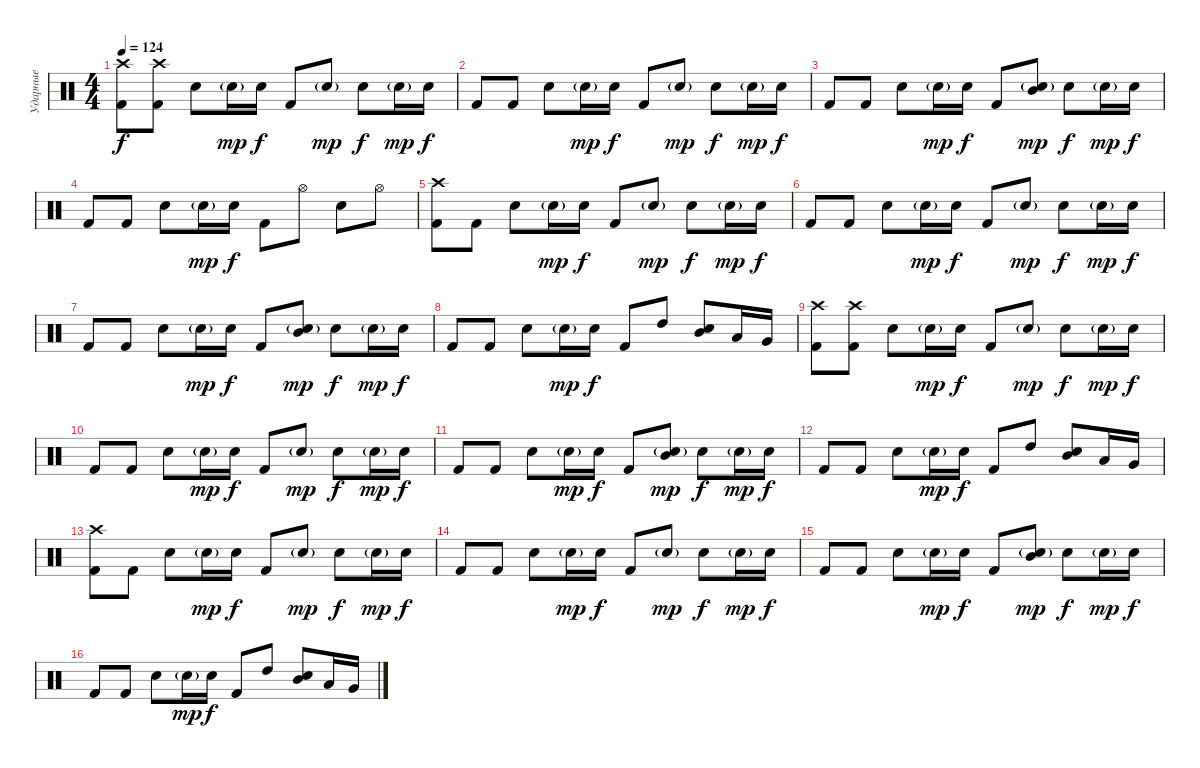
\track ("Ударные" "Ударные") {instrument percussion}
\staff {score}
\articulation defaults
\ts (4 4)
\tempo 124
\clef neutral
\ks c
("Crash high (hit)" "Kick (hit) 2").8{dy f} ("Crash high (hit)" "Kick (hit) 2").8 "Electric Snare (hit)".8 "Electric Snare (hit)"{g}.16{dy mp} "Electric Snare (hit)".16{dy f} "Kick (hit) 2".8 "Electric Snare (hit)"{g}.8{dy mp} "Electric Snare (hit)".8{dy f} "Electric Snare (hit)"{g}.16{dy mp} "Electric Snare (hit)".16{dy f} |
"Kick (hit) 2".8 "Kick (hit) 2".8 "Electric Snare (hit)".8 "Electric Snare (hit)"{g}.16{dy mp} "Electric Snare (hit)".16{dy f} "Kick (hit) 2".8 "Electric Snare (hit)"{g}.8{dy mp} "Electric Snare (hit)".8{dy f} "Electric Snare (hit)"{g}.16{dy mp} "Electric Snare (hit)".16{dy f} |
"Kick (hit) 2".8 "Kick (hit) 2".8 "Electric Snare (hit)".8 "Electric Snare (hit)"{g}.16{dy mp} "Electric Snare (hit)".16{dy f} "Kick (hit) 2".8 ("Mid Tom (hit)" "Electric Snare (hit)"{g}).8{dy mp} "Electric Snare (hit)".8{dy f} "Electric Snare (hit)"{g}.16{dy mp} "Electric Snare (hit)".16{dy f} |
"Kick (hit) 2".8 "Kick (hit) 2".8 "Electric Snare (hit)".8 "Electric Snare (hit)"{g}.16{dy mp} "Electric Snare (hit)".16{dy f} "Kick (hit) 2".8 "Hi-Hat (open)".8 "Electric Snare (hit)".8 "Hi-Hat (open)".8 |
("Crash high (hit)" "Kick (hit) 2").8 "Kick (hit) 2".8 "Electric Snare (hit)".8 "Electric Snare (hit)"{g}.16{dy mp} "Electric Snare (hit)".16{dy f} "Kick (hit) 2".8 "Electric Snare (hit)"{g}.8{dy mp} "Electric Snare (hit)".8{dy f} "Electric Snare (hit)"{g}.16{dy mp} "Electric Snare (hit)".16{dy f} |
"Kick (hit) 2".8 "Kick (hit) 2".8 "Electric Snare (hit)".8 "Electric Snare (hit)"{g}.16{dy mp} "Electric Snare (hit)".16{dy f} "Kick (hit) 2".8 "Electric Snare (hit)"{g}.8{dy mp} "Electric Snare (hit)".8{dy f} "Electric Snare (hit)"{g}.16{dy mp} "Electric Snare (hit)".16{dy f} |
"Kick (hit) 2".8 "Kick (hit) 2".8 "Electric Snare (hit)".8 "Electric Snare (hit)"{g}.16{dy mp} "Electric Snare (hit)".16{dy f} "Kick (hit) 2".8 ("Mid Tom (hit)" "Electric Snare (hit)"{g}).8{dy mp} "Electric Snare (hit)".8{dy f} "Electric Snare (hit)"{g}.16{dy mp} "Electric Snare (hit)".16{dy f} |
"Kick (hit) 2".8 "Kick (hit) 2".8 "Electric Snare (hit)".8 "Electric Snare (hit)"{g}.16{dy mp} "Electric Snare (hit)".16{dy f} "Kick (hit) 2".8 "High Tom (hit)".8 ("Mid Tom (hit)" "Electric Snare (hit)").8 "Low Tom (hit)".16 "Very Low Tom (hit)".16 |
("Crash high (hit)" "Kick (hit) 2").8 ("Crash high (hit)" "Kick (hit) 2").8 "Electric Snare (hit)".8 "Electric Snare (hit)"{g}.16{dy mp} "Electric Snare (hit)".16{dy f} "Kick (hit) 2".8 "Electric Snare (hit)"{g}.8{dy mp} "Electric Snare (hit)".8{dy f} "Electric Snare (hit)"{g}.16{dy mp} "Electric Snare (hit)".16{dy f} |
"Kick (hit) 2".8 "Kick (hit) 2".8 "Electric Snare (hit)".8 "Electric Snare (hit)"{g}.16{dy mp} "Electric Snare (hit)".16{dy f} "Kick (hit) 2".8 "Electric Snare (hit)"{g}.8{dy mp} "Electric Snare (hit)".8{dy f} "Electric Snare (hit)"{g}.16{dy mp} "Electric Snare (hit)".16{dy f} |
"Kick (hit) 2".8 "Kick (hit) 2".8 "Electric Snare (hit)".8 "Electric Snare (hit)"{g}.16{dy mp} "Electric Snare (hit)".16{dy f} "Kick (hit) 2".8 ("Mid Tom (hit)" "Electric Snare (hit)"{g}).8{dy mp} "Electric Snare (hit)".8{dy f} "Electric Snare (hit)"{g}.16{dy mp} "Electric Snare (hit)".16{dy f} |
"Kick (hit) 2".8 "Kick (hit) 2".8 "Electric Snare (hit)".8 "Electric Snare (hit)"{g}.16{dy mp} "Electric Snare (hit)".16{dy f} "Kick (hit) 2".8 "High Tom (hit)".8 ("Mid Tom (hit)" "Electric Snare (hit)").8 "Low Tom (hit)".16 "Very Low Tom (hit)".16 |
("Crash high (hit)" "Kick (hit) 2").8 "Kick (hit) 2".8 "Electric Snare (hit)".8 "Electric Snare (hit)"{g}.16{dy mp} "Electric Snare (hit)".16{dy f} "Kick (hit) 2".8 "Electric Snare (hit)"{g}.8{dy mp} "Electric Snare (hit)".8{dy f} "Electric Snare (hit)"{g}.16{dy mp} "Electric Snare (hit)".16{dy f} |
"Kick (hit) 2".8 "Kick (hit) 2".8 "Electric Snare (hit)".8 "Electric Snare (hit)"{g}.16{dy mp} "Electric Snare (hit)".16{dy f} "Kick (hit) 2".8 "Electric Snare (hit)"{g}.8{dy mp} "Electric Snare (hit)".8{dy f} "Electric Snare (hit)"{g}.16{dy mp} "Electric Snare (hit)".16{dy f} |
"Kick (hit) 2".8 "Kick (hit) 2".8 "Electric Snare (hit)".8 "Electric Snare (hit)"{g}.16{dy mp} "Electric Snare (hit)".16{dy f} "Kick (hit) 2".8 ("Mid Tom (hit)" "Electric Snare (hit)"{g}).8{dy mp} "Electric Snare (hit)".8{dy f} "Electric Snare (hit)"{g}.16{dy mp} "Electric Snare (hit)".16{dy f} |
"Kick (hit) 2".8 "Kick (hit) 2".8 "Electric Snare (hit)".8 "Electric Snare (hit)"{g}.16{dy mp} "Electric Snare (hit)".16{dy f} "Kick (hit) 2".8 "High Tom (hit)".8 ("Mid Tom (hit)" "Electric Snare (hit)").8 "Low Tom (hit)".16 "Very Low Tom (hit)".16
